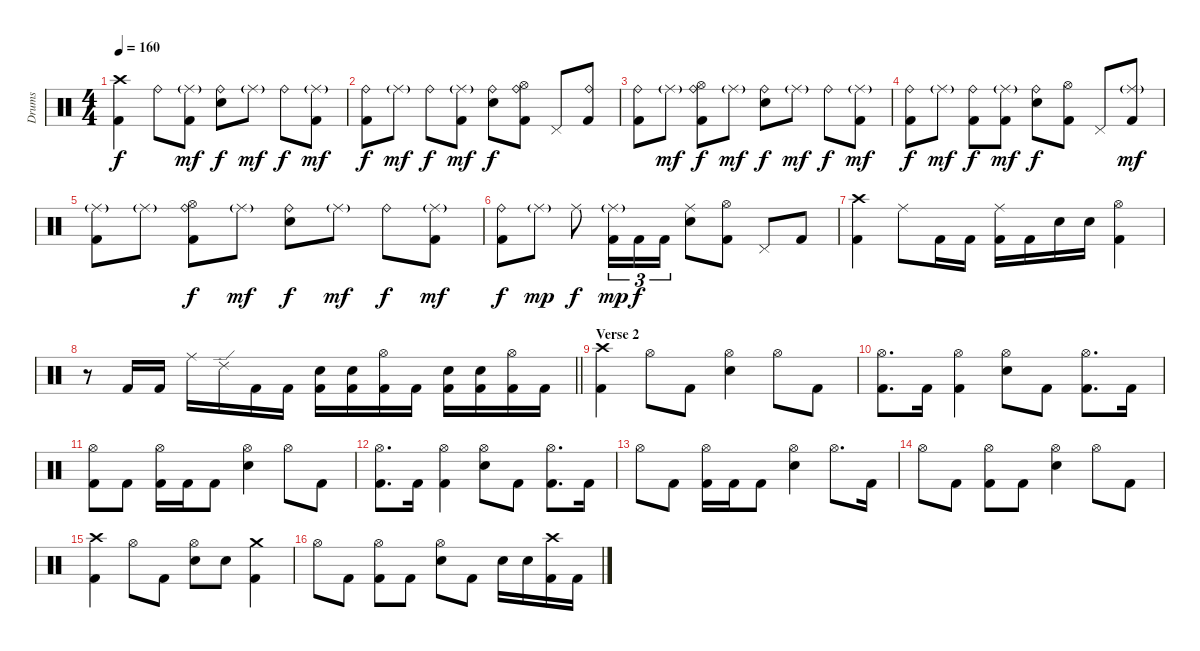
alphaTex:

\track ("Drums" "Drums") {instrument percussion}
\staff {score}
\articulation defaults
\ts (4 4)
\tempo 160
\clef neutral
\ks c
("Crash high (hit)" "Kick (hit) 2").4{dy f} "Ride (bell)".8 ("Ride (middle)"{g} "Kick (hit) 2").8{dy mf} ("Ride (bell)" "Electric Snare (hit)").8{dy f} "Ride (middle)"{g}.8{dy mf} "Ride (bell)".8{dy f} ("Ride (middle)"{g} "Kick (hit) 2").8{dy mf} |
("Ride (bell)" "Kick (hit) 2").8{dy f} "Ride (middle)"{g}.8{dy mf} "Ride (bell)".8{dy f} ("Ride (middle)"{g} "Kick (hit) 2").8{dy mf} ("Ride (bell)" "Electric Snare (hit)").8{dy f} ("Hi-Hat (open)" "Ride (bell)" "Kick (hit) 2").8 "Pedal Hi-Hat (hit)".8 ("Ride (bell)" "Kick (hit) 2").8 |
("Ride (bell)" "Kick (hit) 2").8 "Ride (middle)"{g}.8{dy mf} ("Hi-Hat (open)" "Ride (bell)" "Kick (hit) 2").8{dy f} "Ride (middle)"{g}.8{dy mf} ("Ride (bell)" "Electric Snare (hit)").8{dy f} "Ride (middle)"{g}.8{dy mf} "Ride (bell)".8{dy f} ("Ride (middle)"{g} "Kick (hit) 2").8{dy mf} |
("Ride (bell)" "Kick (hit) 2").8{dy f} "Ride (middle)"{g}.8{dy mf} ("Ride (bell)" "Kick (hit) 2").8{dy f} ("Ride (middle)"{g} "Kick (hit) 2").8{dy mf} ("Ride (bell)" "Electric Snare (hit)").8{dy f} ("Hi-Hat (open)" "Kick (hit) 2").8 "Pedal Hi-Hat (hit)".8 ("Ride (middle)"{g} "Kick (hit) 2").8{dy mf} |
("Ride (middle)"{g} "Kick (hit) 2").8 "Ride (middle)"{g}.8 ("Hi-Hat (open)" "Ride (bell)" "Kick (hit) 2").8{dy f} "Ride (middle)"{g}.8{dy mf} ("Ride (bell)" "Electric Snare (hit)").8{dy f} "Ride (middle)"{g}.8{dy mf} "Ride (bell)".8{dy f} ("Ride (middle)"{g} "Kick (hit) 2").8{dy mf} |
("Ride (bell)" "Kick (hit) 2").8{dy f} "Ride (middle)"{g}.8{dy mp} "Ride (middle)".8{dy f} ("Ride (middle)"{g} "Kick (hit) 2").16{tu (3 2) dy mp} "Kick (hit) 2".16{tu (3 2) dy f} "Kick (hit) 2".16{tu (3 2)} ("Ride (middle)" "Electric Snare (hit)").8 ("Hi-Hat (open)" "Kick (hit) 2").8 "Pedal Hi-Hat (hit)".8 "Kick (hit) 2".8 |
("Crash high (hit)" "Kick (hit) 2").4 "Ride (middle)".8 "Kick (hit) 2".16 "Kick (hit) 2".16 ("Ride (middle)" "Kick (hit) 2").16 "Kick (hit) 2".16 "Electric Snare (hit)".16 "Electric Snare (hit)".16 ("Hi-Hat (open)" "Kick (hit) 2").4 |
\barLineRight lightlight
r.8 "Kick (hit) 2".16 "Kick (hit) 2".16 "Ride (middle)".16 "Ride (edge) 2".16 "Kick (hit) 2".16 "Kick (hit) 2".16 ("Electric Snare (hit)" "Kick (hit) 2").16 ("Electric Snare (hit)" "Kick (hit) 2").16 ("Hi-Hat (open)" "Kick (hit) 2").16 "Kick (hit) 2".16 ("Electric Snare (hit)" "Kick (hit) 2").16 ("Electric Snare (hit)" "Kick (hit) 2").16 ("Hi-Hat (open)" "Kick (hit) 2").16 "Kick (hit) 2".16 |
\section ("" "Verse 2")
("Crash high (hit)" "Kick (hit) 2").4 "Hi-Hat (open)".8 "Kick (hit) 2".8 ("Hi-Hat (open)" "Electric Snare (hit)").4 "Hi-Hat (open)".8 "Kick (hit) 2".8 |
("Hi-Hat (open)" "Kick (hit) 2").8{d} "Kick (hit) 2".16 ("Hi-Hat (open)" "Kick (hit) 2").4 ("Hi-Hat (open)" "Electric Snare (hit)").8 "Kick (hit) 2".8 ("Hi-Hat (open)" "Kick (hit) 2").8{d} "Kick (hit) 2".16 |
("Hi-Hat (open)" "Kick (hit) 2").8 "Kick (hit) 2".8 ("Hi-Hat (open)" "Kick (hit) 2").16 "Kick (hit) 2".16 "Kick (hit) 2".8 ("Hi-Hat (open)" "Electric Snare (hit)").4 "Hi-Hat (open)".8 "Kick (hit) 2".8 |
("Hi-Hat (open)" "Kick (hit) 2").8{d} "Kick (hit) 2".16 ("Hi-Hat (open)" "Kick (hit) 2").4 ("Hi-Hat (open)" "Electric Snare (hit)").8 "Kick (hit) 2".8 ("Hi-Hat (open)" "Kick (hit) 2").8{d} "Kick (hit) 2".16 |
"Hi-Hat (open)".8 "Kick (hit) 2".8 ("Hi-Hat (open)" "Kick (hit) 2").16 "Kick (hit) 2".16 "Kick (hit) 2".8 ("Hi-Hat (open)" "Electric Snare (hit)").4 "Hi-Hat (open)".8{d} "Kick (hit) 2".16 |
"Hi-Hat (open)".8 "Kick (hit) 2".8 ("Hi-Hat (open)" "Kick (hit) 2").8 "Kick (hit) 2".8 ("Hi-Hat (open)" "Electric Snare (hit)").4 "Hi-Hat (open)".8 "Kick (hit) 2".8 |
("Crash high (hit)" "Kick (hit) 2").4 "Hi-Hat (open)".8 "Kick (hit) 2".8 ("Hi-Hat (open)" "Electric Snare (hit)").8 "Electric Snare (hit)".8 ("Crash medium (hit)" "Kick (hit) 2").4 |
"Hi-Hat (open)".8 "Kick (hit) 2".8 ("Hi-Hat (open)" "Kick (hit) 2").8 "Kick (hit) 2".8 ("Hi-Hat (open)" "Electric Snare (hit)").8 "Kick (hit) 2".8 "Electric Snare (hit)".16 "Electric Snare (hit)".16 ("Crash high (hit)" "Kick (hit) 2").16 "Kick (hit) 2".16
